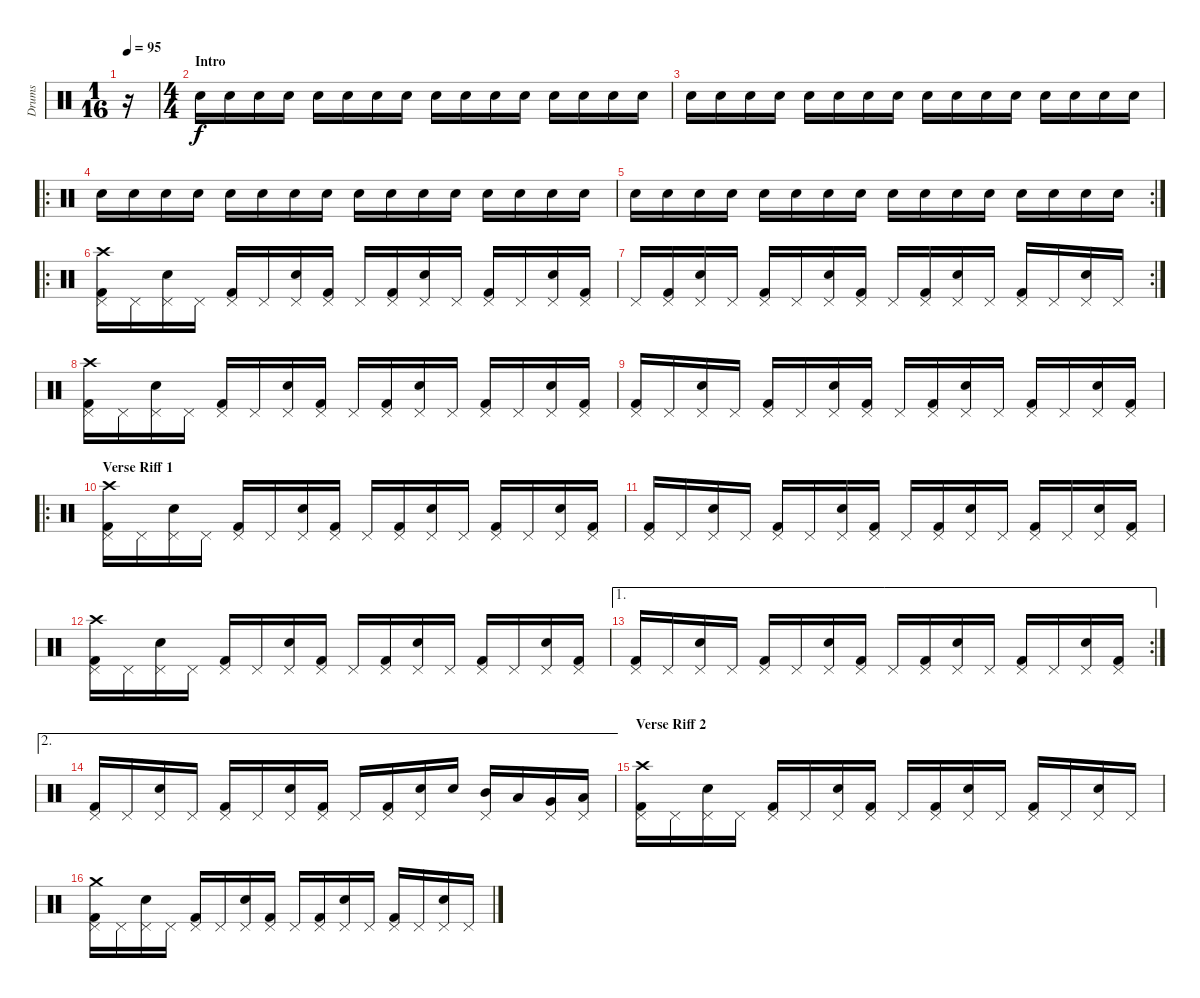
\track ("Drums" "Drums") {instrument percussion}
\staff {score}
\articulation defaults
\ts (1 16)
\tempo 95
\clef neutral
\ks c
r.16{dy f} |
\ts (4 4)
\section ("" "Intro")
"Snare (hit) 2".16 "Snare (hit) 2".16 "Snare (hit) 2".16 "Snare (hit) 2".16 "Snare (hit) 2".16 "Snare (hit) 2".16 "Snare (hit) 2".16 "Snare (hit) 2".16 "Snare (hit) 2".16 "Snare (hit) 2".16 "Snare (hit) 2".16 "Snare (hit) 2".16 "Snare (hit) 2".16 "Snare (hit) 2".16 "Snare (hit) 2".16 "Snare (hit) 2".16 |
"Snare (hit) 2".16 "Snare (hit) 2".16 "Snare (hit) 2".16 "Snare (hit) 2".16 "Snare (hit) 2".16 "Snare (hit) 2".16 "Snare (hit) 2".16 "Snare (hit) 2".16 "Snare (hit) 2".16 "Snare (hit) 2".16 "Snare (hit) 2".16 "Snare (hit) 2".16 "Snare (hit) 2".16 "Snare (hit) 2".16 "Snare (hit) 2".16 "Snare (hit) 2".16 |
\ro "Snare (hit) 2".16 "Snare (hit) 2".16 "Snare (hit) 2".16 "Snare (hit) 2".16 "Snare (hit) 2".16 "Snare (hit) 2".16 "Snare (hit) 2".16 "Snare (hit) 2".16 "Snare (hit) 2".16 "Snare (hit) 2".16 "Snare (hit) 2".16 "Snare (hit) 2".16 "Snare (hit) 2".16 "Snare (hit) 2".16 "Snare (hit) 2".16 "Snare (hit) 2".16
|
\rc 2 "Snare (hit) 2".16 "Snare (hit) 2".16 "Snare (hit) 2".16 "Snare (hit) 2".16 "Snare (hit) 2".16 "Snare (hit) 2".16 "Snare (hit) 2".16 "Snare (hit) 2".16 "Snare (hit) 2".16 "Snare (hit) 2".16 "Snare (hit) 2".16 "Snare (hit) 2".16 "Snare (hit) 2".16 "Snare (hit) 2".16 "Snare (hit) 2".16 "Snare (hit) 2".16
|
\ro
("Kick (hit) 2" "Pedal Hi-Hat (hit)" "Crash high (hit)").16 "Pedal Hi-Hat (hit)".16 ("Snare (hit) 2" "Pedal Hi-Hat (hit)").16 "Pedal Hi-Hat (hit)".16 ("Kick (hit) 2" "Pedal Hi-Hat (hit)").16 "Pedal Hi-Hat (hit)".16 ("Snare (hit) 2" "Pedal Hi-Hat (hit)").16 ("Kick (hit) 2" "Pedal Hi-Hat (hit)").16 "Pedal Hi-Hat (hit)".16 ("Kick (hit) 2" "Pedal Hi-Hat (hit)").16 ("Snare (hit) 2" "Pedal Hi-Hat (hit)").16 "Pedal Hi-Hat (hit)".16 ("Kick (hit) 2" "Pedal Hi-Hat (hit)").16 "Pedal Hi-Hat (hit)".16 ("Snare (hit) 2" "Pedal Hi-Hat (hit)").16 ("Kick (hit) 2" "Pedal Hi-Hat (hit)").16 |
\rc 2 "Pedal Hi-Hat (hit)".16
("Kick (hit) 2" "Pedal Hi-Hat (hit)").16 ("Snare (hit) 2" "Pedal Hi-Hat (hit)").16 "Pedal Hi-Hat (hit)".16 ("Kick (hit) 2" "Pedal Hi-Hat (hit)").16 "Pedal Hi-Hat (hit)".16 ("Snare (hit) 2" "Pedal Hi-Hat (hit)").16 ("Kick (hit) 2" "Pedal Hi-Hat (hit)").16 "Pedal Hi-Hat (hit)".16 ("Kick (hit) 2" "Pedal Hi-Hat (hit)").16 ("Snare (hit) 2" "Pedal Hi-Hat (hit)").16 "Pedal Hi-Hat (hit)".16 ("Kick (hit) 2" "Pedal Hi-Hat (hit)").16 "Pedal Hi-Hat (hit)".16 ("Snare (hit) 2" "Pedal Hi-Hat (hit)").16 "Pedal Hi-Hat (hit)".16 |
("Kick (hit) 2" "Pedal Hi-Hat (hit)" "Crash high (hit)").16 "Pedal Hi-Hat (hit)".16 ("Snare (hit) 2" "Pedal Hi-Hat (hit)").16 "Pedal Hi-Hat (hit)".16 ("Kick (hit) 2" "Pedal Hi-Hat (hit)").16 "Pedal Hi-Hat (hit)".16 ("Snare (hit) 2" "Pedal Hi-Hat (hit)").16 ("Kick (hit) 2" "Pedal Hi-Hat (hit)").16 "Pedal Hi-Hat (hit)".16 ("Kick (hit) 2" "Pedal Hi-Hat (hit)").16 ("Snare (hit) 2" "Pedal Hi-Hat (hit)").16 "Pedal Hi-Hat (hit)".16 ("Kick (hit) 2" "Pedal Hi-Hat (hit)").16 "Pedal Hi-Hat (hit)".16 ("Snare (hit) 2" "Pedal Hi-Hat (hit)").16 ("Kick (hit) 2" "Pedal Hi-Hat (hit)").16 |
("Kick (hit) 2" "Pedal Hi-Hat (hit)").16 "Pedal Hi-Hat (hit)".16 ("Snare (hit) 2" "Pedal Hi-Hat (hit)").16 "Pedal Hi-Hat (hit)".16 ("Kick (hit) 2" "Pedal Hi-Hat (hit)").16 "Pedal Hi-Hat (hit)".16 ("Snare (hit) 2" "Pedal Hi-Hat (hit)").16 ("Kick (hit) 2" "Pedal Hi-Hat (hit)").16 "Pedal Hi-Hat (hit)".16 ("Kick (hit) 2" "Pedal Hi-Hat (hit)").16 ("Snare (hit) 2" "Pedal Hi-Hat (hit)").16 "Pedal Hi-Hat (hit)".16 ("Kick (hit) 2" "Pedal Hi-Hat (hit)").16 "Pedal Hi-Hat (hit)".16 ("Snare (hit) 2" "Pedal Hi-Hat (hit)").16 ("Kick (hit) 2" "Pedal Hi-Hat (hit)").16 |
\ro
\section ("" "Verse Riff 1")
("Kick (hit) 2" "Pedal Hi-Hat (hit)" "Crash high (hit)").16 "Pedal Hi-Hat (hit)".16 ("Snare (hit) 2" "Pedal Hi-Hat (hit)").16 "Pedal Hi-Hat (hit)".16 ("Kick (hit) 2" "Pedal Hi-Hat (hit)").16 "Pedal Hi-Hat (hit)".16 ("Snare (hit) 2" "Pedal Hi-Hat (hit)").16 ("Kick (hit) 2" "Pedal Hi-Hat (hit)").16 "Pedal Hi-Hat (hit)".16 ("Kick (hit) 2" "Pedal Hi-Hat (hit)").16 ("Snare (hit) 2" "Pedal Hi-Hat (hit)").16 "Pedal Hi-Hat (hit)".16 ("Kick (hit) 2" "Pedal Hi-Hat (hit)").16 "Pedal Hi-Hat (hit)".16 ("Snare (hit) 2" "Pedal Hi-Hat (hit)").16 ("Kick (hit) 2" "Pedal Hi-Hat (hit)").16 |
("Kick (hit) 2" "Pedal Hi-Hat (hit)").16 "Pedal Hi-Hat (hit)".16 ("Snare (hit) 2" "Pedal Hi-Hat (hit)").16 "Pedal Hi-Hat (hit)".16 ("Kick (hit) 2" "Pedal Hi-Hat (hit)").16 "Pedal Hi-Hat (hit)".16 ("Snare (hit) 2" "Pedal Hi-Hat (hit)").16 ("Kick (hit) 2" "Pedal Hi-Hat (hit)").16 "Pedal Hi-Hat (hit)".16 ("Kick (hit) 2" "Pedal Hi-Hat (hit)").16 ("Snare (hit) 2" "Pedal Hi-Hat (hit)").16 "Pedal Hi-Hat (hit)".16 ("Kick (hit) 2" "Pedal Hi-Hat (hit)").16 "Pedal Hi-Hat (hit)".16 ("Snare (hit) 2" "Pedal Hi-Hat (hit)").16 ("Kick (hit) 2" "Pedal Hi-Hat (hit)").16 |
("Kick (hit) 2" "Pedal Hi-Hat (hit)" "Crash high (hit)").16 "Pedal Hi-Hat (hit)".16 ("Snare (hit) 2" "Pedal Hi-Hat (hit)").16 "Pedal Hi-Hat (hit)".16 ("Kick (hit) 2" "Pedal Hi-Hat (hit)").16 "Pedal Hi-Hat (hit)".16 ("Snare (hit) 2" "Pedal Hi-Hat (hit)").16 ("Kick (hit) 2" "Pedal Hi-Hat (hit)").16 "Pedal Hi-Hat (hit)".16 ("Kick (hit) 2" "Pedal Hi-Hat (hit)").16 ("Snare (hit) 2" "Pedal Hi-Hat (hit)").16 "Pedal Hi-Hat (hit)".16 ("Kick (hit) 2" "Pedal Hi-Hat (hit)").16 "Pedal Hi-Hat (hit)".16 ("Snare (hit) 2" "Pedal Hi-Hat (hit)").16 ("Kick (hit) 2" "Pedal Hi-Hat (hit)").16 |
\ae 1
\rc 2
("Kick (hit) 2" "Pedal Hi-Hat (hit)").16 "Pedal Hi-Hat (hit)".16 ("Snare (hit) 2" "Pedal Hi-Hat (hit)").16 "Pedal Hi-Hat (hit)".16 ("Kick (hit) 2" "Pedal Hi-Hat (hit)").16 "Pedal Hi-Hat (hit)".16 ("Snare (hit) 2" "Pedal Hi-Hat (hit)").16 ("Kick (hit) 2" "Pedal Hi-Hat (hit)").16 "Pedal Hi-Hat (hit)".16 ("Kick (hit) 2" "Pedal Hi-Hat (hit)").16 ("Snare (hit) 2" "Pedal Hi-Hat (hit)").16 "Pedal Hi-Hat (hit)".16 ("Kick (hit) 2" "Pedal Hi-Hat (hit)").16 "Pedal Hi-Hat (hit)".16 ("Snare (hit) 2" "Pedal Hi-Hat (hit)").16 ("Kick (hit) 2" "Pedal Hi-Hat (hit)").16 |
\ae 2
("Kick (hit) 2" "Pedal Hi-Hat (hit)").16 "Pedal Hi-Hat (hit)".16 ("Snare (hit) 2" "Pedal Hi-Hat (hit)").16 "Pedal Hi-Hat (hit)".16 ("Kick (hit) 2" "Pedal Hi-Hat (hit)").16 "Pedal Hi-Hat (hit)".16 ("Snare (hit) 2" "Pedal Hi-Hat (hit)").16 ("Kick (hit) 2" "Pedal Hi-Hat (hit)").16 "Pedal Hi-Hat (hit)".16 ("Kick (hit) 2" "Pedal Hi-Hat (hit)").16 ("Snare (hit) 2" "Pedal Hi-Hat (hit)").16 "Snare (hit) 2".16 ("Mid Tom (hit)" "Pedal Hi-Hat (hit)").16 "Low Tom (hit)".16 ("Very Low Tom (hit)" "Pedal Hi-Hat (hit)").16 ("Low Floor Tom (hit)" "Pedal Hi-Hat (hit)").16 |
\section ("" "Verse Riff 2")
("Kick (hit) 2" "Pedal Hi-Hat (hit)" "Crash high (hit)").16 "Pedal Hi-Hat (hit)".16 ("Snare (hit) 2" "Pedal Hi-Hat (hit)").16 "Pedal Hi-Hat (hit)".16 ("Kick (hit) 2" "Pedal Hi-Hat (hit)").16 "Pedal Hi-Hat (hit)".16 ("Snare (hit) 2" "Pedal Hi-Hat (hit)").16 ("Kick (hit) 2" "Pedal Hi-Hat (hit)").16 "Pedal Hi-Hat (hit)".16 ("Kick (hit) 2" "Pedal Hi-Hat (hit)").16 ("Snare (hit) 2" "Pedal Hi-Hat (hit)").16 "Pedal Hi-Hat (hit)".16 ("Kick (hit) 2" "Pedal Hi-Hat (hit)").16 "Pedal Hi-Hat (hit)".16 ("Snare (hit) 2" "Pedal Hi-Hat (hit)").16 "Pedal Hi-Hat (hit)".16 |
("Kick (hit) 2" "Pedal Hi-Hat (hit)" "Crash medium (hit)").16 "Pedal Hi-Hat (hit)".16 ("Snare (hit) 2" "Pedal Hi-Hat (hit)").16 "Pedal Hi-Hat (hit)".16 ("Kick (hit) 2" "Pedal Hi-Hat (hit)").16 "Pedal Hi-Hat (hit)".16 ("Snare (hit) 2" "Pedal Hi-Hat (hit)").16 ("Kick (hit) 2" "Pedal Hi-Hat (hit)").16 "Pedal Hi-Hat (hit)".16 ("Kick (hit) 2" "Pedal Hi-Hat (hit)").16 ("Snare (hit) 2" "Pedal Hi-Hat (hit)").16 "Pedal Hi-Hat (hit)".16 ("Kick (hit) 2" "Pedal Hi-Hat (hit)").16 "Pedal Hi-Hat (hit)".16 ("Snare (hit) 2" "Pedal Hi-Hat (hit)").16 "Pedal Hi-Hat (hit)".16
